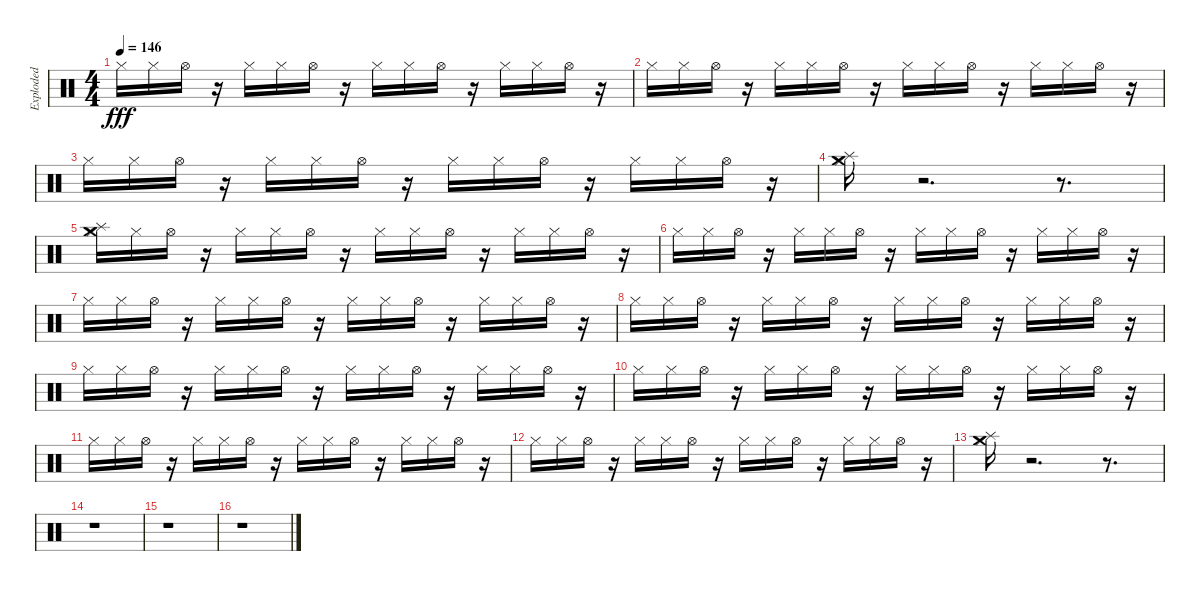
\track ("Exploded" "Exploded") {instrument percussion}
\staff {score}
\articulation defaults
\ts (4 4)
\tempo 146
\clef neutral
\ks c "Hi-Hat (closed)".16{dy fff} "Hi-Hat (closed)".16 "Hi-Hat (open)".16
r.16 "Hi-Hat (closed)".16 "Hi-Hat (closed)".16 "Hi-Hat (open)".16 r.16 "Hi-Hat (closed)".16 "Hi-Hat (closed)".16 "Hi-Hat (open)".16 r.16 "Hi-Hat (closed)".16 "Hi-Hat (closed)".16 "Hi-Hat (open)".16 r.16 |
"Hi-Hat (closed)".16 "Hi-Hat (closed)".16 "Hi-Hat (open)".16 r.16 "Hi-Hat (closed)".16 "Hi-Hat (closed)".16 "Hi-Hat (open)".16 r.16 "Hi-Hat (closed)".16 "Hi-Hat (closed)".16 "Hi-Hat (open)".16 r.16 "Hi-Hat (closed)".16 "Hi-Hat (closed)".16 "Hi-Hat (open)".16 r.16 |
"Hi-Hat (closed)".16 "Hi-Hat (closed)".16 "Hi-Hat (open)".16 r.16 "Hi-Hat (closed)".16 "Hi-Hat (closed)".16 "Hi-Hat (open)".16 r.16 "Hi-Hat (closed)".16 "Hi-Hat (closed)".16 "Hi-Hat (open)".16 r.16 "Hi-Hat (closed)".16 "Hi-Hat (closed)".16 "Hi-Hat (open)".16 r.16 |
("Hi-Hat (closed)" "Splash (hit)" "Crash medium (hit)").16 r.2{d} r.8{d} |
("Hi-Hat (closed)" "Crash medium (hit)" "Splash (hit)").16 "Hi-Hat (closed)".16 "Hi-Hat (open)".16 r.16 "Hi-Hat (closed)".16 "Hi-Hat (closed)".16 "Hi-Hat (open)".16 r.16 "Hi-Hat (closed)".16 "Hi-Hat (closed)".16 "Hi-Hat (open)".16 r.16 "Hi-Hat (closed)".16 "Hi-Hat (closed)".16 "Hi-Hat (open)".16 r.16 |
"Hi-Hat (closed)".16 "Hi-Hat (closed)".16 "Hi-Hat (open)".16 r.16 "Hi-Hat (closed)".16 "Hi-Hat (closed)".16 "Hi-Hat (open)".16 r.16 "Hi-Hat (closed)".16 "Hi-Hat (closed)".16 "Hi-Hat (open)".16 r.16 "Hi-Hat (closed)".16 "Hi-Hat (closed)".16 "Hi-Hat (open)".16 r.16 |
"Hi-Hat (closed)".16 "Hi-Hat (closed)".16 "Hi-Hat (open)".16 r.16 "Hi-Hat (closed)".16 "Hi-Hat (closed)".16 "Hi-Hat (open)".16 r.16 "Hi-Hat (closed)".16 "Hi-Hat (closed)".16 "Hi-Hat (open)".16 r.16 "Hi-Hat (closed)".16 "Hi-Hat (closed)".16 "Hi-Hat (open)".16 r.16 |
"Hi-Hat (closed)".16 "Hi-Hat (closed)".16 "Hi-Hat (open)".16 r.16 "Hi-Hat (closed)".16 "Hi-Hat (closed)".16 "Hi-Hat (open)".16 r.16 "Hi-Hat (closed)".16 "Hi-Hat (closed)".16 "Hi-Hat (open)".16 r.16 "Hi-Hat (closed)".16 "Hi-Hat (closed)".16 "Hi-Hat (open)".16 r.16 |
"Hi-Hat (closed)".16 "Hi-Hat (closed)".16 "Hi-Hat (open)".16 r.16 "Hi-Hat (closed)".16 "Hi-Hat (closed)".16 "Hi-Hat (open)".16 r.16 "Hi-Hat (closed)".16 "Hi-Hat (closed)".16 "Hi-Hat (open)".16 r.16 "Hi-Hat (closed)".16 "Hi-Hat (closed)".16 "Hi-Hat (open)".16 r.16 |
"Hi-Hat (closed)".16 "Hi-Hat (closed)".16 "Hi-Hat (open)".16 r.16 "Hi-Hat (closed)".16 "Hi-Hat (closed)".16 "Hi-Hat (open)".16 r.16 "Hi-Hat (closed)".16 "Hi-Hat (closed)".16 "Hi-Hat (open)".16 r.16 "Hi-Hat (closed)".16 "Hi-Hat (closed)".16 "Hi-Hat (open)".16 r.16 |
"Hi-Hat (closed)".16 "Hi-Hat (closed)".16 "Hi-Hat (open)".16 r.16 "Hi-Hat (closed)".16 "Hi-Hat (closed)".16 "Hi-Hat (open)".16 r.16 "Hi-Hat (closed)".16 "Hi-Hat (closed)".16 "Hi-Hat (open)".16 r.16 "Hi-Hat (closed)".16 "Hi-Hat (closed)".16 "Hi-Hat (open)".16 r.16 |
"Hi-Hat (closed)".16 "Hi-Hat (closed)".16 "Hi-Hat (open)".16 r.16 "Hi-Hat (closed)".16 "Hi-Hat (closed)".16 "Hi-Hat (open)".16 r.16 "Hi-Hat (closed)".16 "Hi-Hat (closed)".16 "Hi-Hat (open)".16 r.16 "Hi-Hat (closed)".16 "Hi-Hat (closed)".16 "Hi-Hat (open)".16 r.16 |
("Hi-Hat (closed)" "Crash medium (hit)" "Splash (hit)").16 r.2{d} r.8{d} |
r.1 |
r.1 |
r.1
